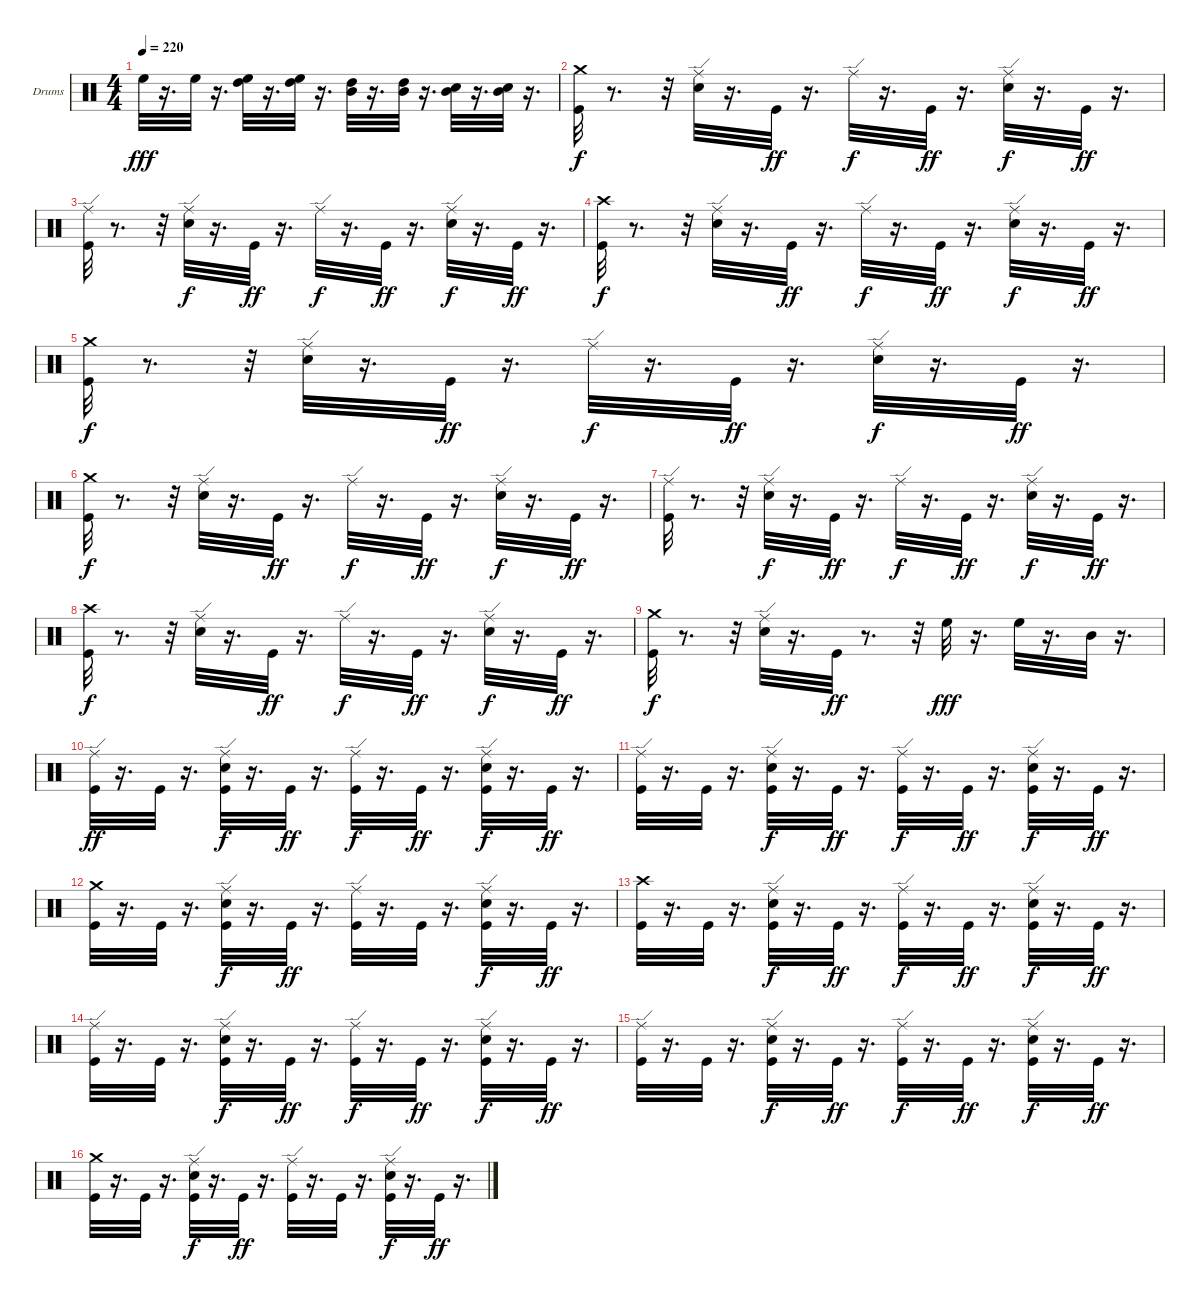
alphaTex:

\defaultSystemsLayout 4
\bracketExtendMode groupsimilarinstruments
\firstSystemTrackNameOrientation horizontal
\otherSystemsTrackNameOrientation horizontal
\track ("Дмитрий Кривенков" "Drums") {instrument percussion}
\staff {score}
\articulation defaults
\ts (4 4)
\tempo 220
\clef neutral
\ks c "High Floor Tom (hit)".32{dy fff}
r.16{d} "High Floor Tom (hit)".32 r.16{d} ("High Tom (hit)" "High Floor Tom (hit)").32 r.16{d} ("High Floor Tom (hit)" "High Tom (hit)").32 r.16{d} ("Mid Tom (hit)" "High Tom (hit)").32 r.16{d} ("Mid Tom (hit)" "High Tom (hit)").32 r.16{d} ("Mid Tom (hit)" "Snare (hit) 2").32 r.16{d} ("Mid Tom (hit)" "Snare (hit) 2").32 r.16{d} |
("Crash medium (hit)" "Kick (hit)").32{dy f} r.8{d} r.32 ("Ride (edge)" "Snare (hit) 2").32 r.16{d} "Kick (hit)".32{dy ff} r.16{d} "Ride (edge)".32{dy f} r.16{d} "Kick (hit)".32{dy ff} r.16{d} ("Ride (edge)" "Snare (hit) 2").32{dy f} r.16{d} "Kick (hit)".32{dy ff} r.16{d} |
("Kick (hit)" "Ride (edge)").32 r.8{d} r.32 ("Snare (hit) 2" "Ride (edge)").32{dy f} r.16{d} "Kick (hit)".32{dy ff} r.16{d} "Ride (edge)".32{dy f} r.16{d} "Kick (hit)".32{dy ff} r.16{d} ("Snare (hit) 2" "Ride (edge)").32{dy f} r.16{d} "Kick (hit)".32{dy ff} r.16{d} |
("Crash high (hit)" "Kick (hit)").32{dy f} r.8{d} r.32 ("Ride (edge)" "Snare (hit) 2").32 r.16{d} "Kick (hit)".32{dy ff} r.16{d} "Ride (edge)".32{dy f} r.16{d} "Kick (hit)".32{dy ff} r.16{d} ("Ride (edge)" "Snare (hit) 2").32{dy f} r.16{d} "Kick (hit)".32{dy ff} r.16{d} |
("Crash medium (hit)" "Kick (hit)").32{dy f} r.8{d} r.32 ("Ride (edge)" "Snare (hit) 2").32 r.16{d} "Kick (hit)".32{dy ff} r.16{d} "Ride (edge)".32{dy f} r.16{d} "Kick (hit)".32{dy ff} r.16{d} ("Ride (edge)" "Snare (hit) 2").32{dy f} r.16{d} "Kick (hit)".32{dy ff} r.16{d} |
("Crash medium (hit)" "Kick (hit)").32{dy f} r.8{d} r.32 ("Ride (edge)" "Snare (hit) 2").32 r.16{d} "Kick (hit)".32{dy ff} r.16{d} "Ride (edge)".32{dy f} r.16{d} "Kick (hit)".32{dy ff} r.16{d} ("Ride (edge)" "Snare (hit) 2").32{dy f} r.16{d} "Kick (hit)".32{dy ff} r.16{d} |
("Kick (hit)" "Ride (edge)").32 r.8{d} r.32 ("Snare (hit) 2" "Ride (edge)").32{dy f} r.16{d} "Kick (hit)".32{dy ff} r.16{d} "Ride (edge)".32{dy f} r.16{d} "Kick (hit)".32{dy ff} r.16{d} ("Snare (hit) 2" "Ride (edge)").32{dy f} r.16{d} "Kick (hit)".32{dy ff} r.16{d} |
("Crash high (hit)" "Kick (hit)").32{dy f} r.8{d} r.32 ("Ride (edge)" "Snare (hit) 2").32 r.16{d} "Kick (hit)".32{dy ff} r.16{d} "Ride (edge)".32{dy f} r.16{d} "Kick (hit)".32{dy ff} r.16{d} ("Ride (edge)" "Snare (hit) 2").32{dy f} r.16{d} "Kick (hit)".32{dy ff} r.16{d} |
("Crash medium (hit)" "Kick (hit)").32{dy f} r.8{d} r.32 ("Ride (edge)" "Snare (hit) 2").32 r.16{d} "Kick (hit)".32{dy ff} r.8{d} r.32 "High Floor Tom (hit)".32{dy fff} r.16{d} "High Floor Tom (hit)".32 r.16{d} "Mid Tom (hit)".32 r.16{d} |
("Kick (hit)" "Ride (edge)").32{dy ff} r.16{d} "Kick (hit)".32 r.16{d} ("Snare (hit) 2" "Kick (hit)" "Ride (edge)").32{dy f} r.16{d} "Kick (hit)".32{dy ff} r.16{d} ("Ride (edge)" "Kick (hit)").32{dy f} r.16{d} "Kick (hit)".32{dy ff} r.16{d} ("Snare (hit) 2" "Kick (hit)" "Ride (edge)").32{dy f} r.16{d} "Kick (hit)".32{dy ff} r.16{d} |
("Kick (hit)" "Ride (edge)").32 r.16{d} "Kick (hit)".32 r.16{d} ("Snare (hit) 2" "Kick (hit)" "Ride (edge)").32{dy f} r.16{d} "Kick (hit)".32{dy ff} r.16{d} ("Ride (edge)" "Kick (hit)").32{dy f} r.16{d} "Kick (hit)".32{dy ff} r.16{d} ("Snare (hit) 2" "Kick (hit)" "Ride (edge)").32{dy f} r.16{d} "Kick (hit)".32{dy ff} r.16{d} |
("Kick (hit)" "Crash medium (hit)").32 r.16{d} "Kick (hit)".32 r.16{d} ("Ride (edge)" "Snare (hit) 2" "Kick (hit)").32{dy f} r.16{d} "Kick (hit)".32{dy ff} r.16{d} ("Kick (hit)" "Ride (edge)").32 r.16{d} "Kick (hit)".32 r.16{d} ("Ride (edge)" "Snare (hit) 2" "Kick (hit)").32{dy f} r.16{d} "Kick (hit)".32{dy ff} r.16{d} |
("Kick (hit)" "Crash high (hit)").32 r.16{d} "Kick (hit)".32 r.16{d} ("Snare (hit) 2" "Kick (hit)" "Ride (edge)").32{dy f} r.16{d} "Kick (hit)".32{dy ff} r.16{d} ("Ride (edge)" "Kick (hit)").32{dy f} r.16{d} "Kick (hit)".32{dy ff} r.16{d} ("Snare (hit) 2" "Kick (hit)" "Ride (edge)").32{dy f} r.16{d} "Kick (hit)".32{dy ff} r.16{d} |
("Kick (hit)" "Ride (edge)").32 r.16{d} "Kick (hit)".32 r.16{d} ("Snare (hit) 2" "Kick (hit)" "Ride (edge)").32{dy f} r.16{d} "Kick (hit)".32{dy ff} r.16{d} ("Ride (edge)" "Kick (hit)").32{dy f} r.16{d} "Kick (hit)".32{dy ff} r.16{d} ("Snare (hit) 2" "Kick (hit)" "Ride (edge)").32{dy f} r.16{d} "Kick (hit)".32{dy ff} r.16{d} |
("Kick (hit)" "Ride (edge)").32 r.16{d} "Kick (hit)".32 r.16{d} ("Snare (hit) 2" "Kick (hit)" "Ride (edge)").32{dy f} r.16{d} "Kick (hit)".32{dy ff} r.16{d} ("Ride (edge)" "Kick (hit)").32{dy f} r.16{d} "Kick (hit)".32{dy ff} r.16{d} ("Snare (hit) 2" "Kick (hit)" "Ride (edge)").32{dy f} r.16{d} "Kick (hit)".32{dy ff} r.16{d} |
("Kick (hit)" "Crash medium (hit)").32 r.16{d} "Kick (hit)".32 r.16{d} ("Ride (edge)" "Snare (hit) 2" "Kick (hit)").32{dy f} r.16{d} "Kick (hit)".32{dy ff} r.16{d} ("Kick (hit)" "Ride (edge)").32 r.16{d} "Kick (hit)".32 r.16{d} ("Ride (edge)" "Snare (hit) 2" "Kick (hit)").32{dy f} r.16{d} "Kick (hit)".32{dy ff} r.16{d}
